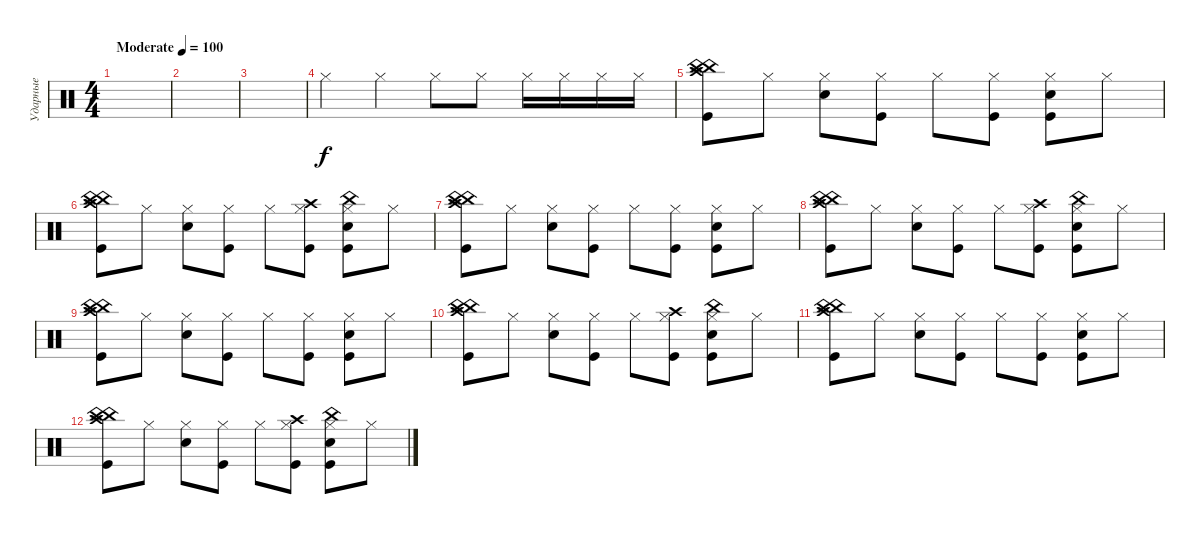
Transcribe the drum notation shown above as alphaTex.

\track ("Ударные" "Ударные") {instrument percussion}
\staff {score}
\articulation defaults
\ts (4 4)
\tempo (100 "Moderate")
\clef neutral
\ks c
|
|
|
"Hi-Hat (closed)".4 "Hi-Hat (closed)".4 "Hi-Hat (closed)".8 "Hi-Hat (closed)".8 "Hi-Hat (closed)".16 "Hi-Hat (closed)".16 "Hi-Hat (closed)".16 "Hi-Hat (closed)".16 |
("China (hit)" "Crash high (hit)" "China (hit)" "Kick (hit)").8 "Hi-Hat (closed)".8 ("Hi-Hat (closed)" "Snare (hit) 2").8 ("Hi-Hat (closed)" "Kick (hit)").8 "Hi-Hat (closed)".8 ("Hi-Hat (closed)" "Kick (hit)").8 ("Hi-Hat (closed)" "Kick (hit)" "Snare (hit) 2").8 "Hi-Hat (closed)".8 |
("China (hit)" "Crash high (hit)" "China (hit)" "Kick (hit)").8 "Hi-Hat (closed)".8 ("Hi-Hat (closed)" "Snare (hit) 2").8 ("Hi-Hat (closed)" "Kick (hit)").8 "Hi-Hat (closed)".8 ("Hi-Hat (closed)" "Kick (hit)" "Crash high (hit)").8 ("Hi-Hat (closed)" "Kick (hit)" "Snare (hit) 2" "China (hit)").8 "Hi-Hat (closed)".8 |
("China (hit)" "Crash high (hit)" "China (hit)" "Kick (hit)").8 "Hi-Hat (closed)".8 ("Hi-Hat (closed)" "Snare (hit) 2").8 ("Hi-Hat (closed)" "Kick (hit)").8 "Hi-Hat (closed)".8 ("Hi-Hat (closed)" "Kick (hit)").8 ("Hi-Hat (closed)" "Kick (hit)" "Snare (hit) 2").8 "Hi-Hat (closed)".8 |
("China (hit)" "Crash high (hit)" "China (hit)" "Kick (hit)").8 "Hi-Hat (closed)".8 ("Hi-Hat (closed)" "Snare (hit) 2").8 ("Hi-Hat (closed)" "Kick (hit)").8 "Hi-Hat (closed)".8 ("Hi-Hat (closed)" "Kick (hit)" "Crash high (hit)").8 ("Hi-Hat (closed)" "Kick (hit)" "Snare (hit) 2" "China (hit)").8 "Hi-Hat (closed)".8 |
("China (hit)" "Crash high (hit)" "China (hit)" "Kick (hit)").8 "Hi-Hat (closed)".8 ("Hi-Hat (closed)" "Snare (hit) 2").8 ("Hi-Hat (closed)" "Kick (hit)").8 "Hi-Hat (closed)".8 ("Hi-Hat (closed)" "Kick (hit)").8 ("Hi-Hat (closed)" "Kick (hit)" "Snare (hit) 2").8 "Hi-Hat (closed)".8 |
("China (hit)" "Crash high (hit)" "China (hit)" "Kick (hit)").8 "Hi-Hat (closed)".8 ("Hi-Hat (closed)" "Snare (hit) 2").8 ("Hi-Hat (closed)" "Kick (hit)").8 "Hi-Hat (closed)".8 ("Hi-Hat (closed)" "Kick (hit)" "Crash high (hit)").8 ("Hi-Hat (closed)" "Kick (hit)" "Snare (hit) 2" "China (hit)").8 "Hi-Hat (closed)".8 |
("China (hit)" "Crash high (hit)" "China (hit)" "Kick (hit)").8 "Hi-Hat (closed)".8 ("Hi-Hat (closed)" "Snare (hit) 2").8 ("Hi-Hat (closed)" "Kick (hit)").8 "Hi-Hat (closed)".8 ("Hi-Hat (closed)" "Kick (hit)").8 ("Hi-Hat (closed)" "Kick (hit)" "Snare (hit) 2").8 "Hi-Hat (closed)".8 |
("China (hit)" "Crash high (hit)" "China (hit)" "Kick (hit)").8 "Hi-Hat (closed)".8 ("Hi-Hat (closed)" "Snare (hit) 2").8 ("Hi-Hat (closed)" "Kick (hit)").8 "Hi-Hat (closed)".8 ("Hi-Hat (closed)" "Kick (hit)" "Crash high (hit)").8 ("Hi-Hat (closed)" "Kick (hit)" "Snare (hit) 2" "China (hit)").8 "Hi-Hat (closed)".8
